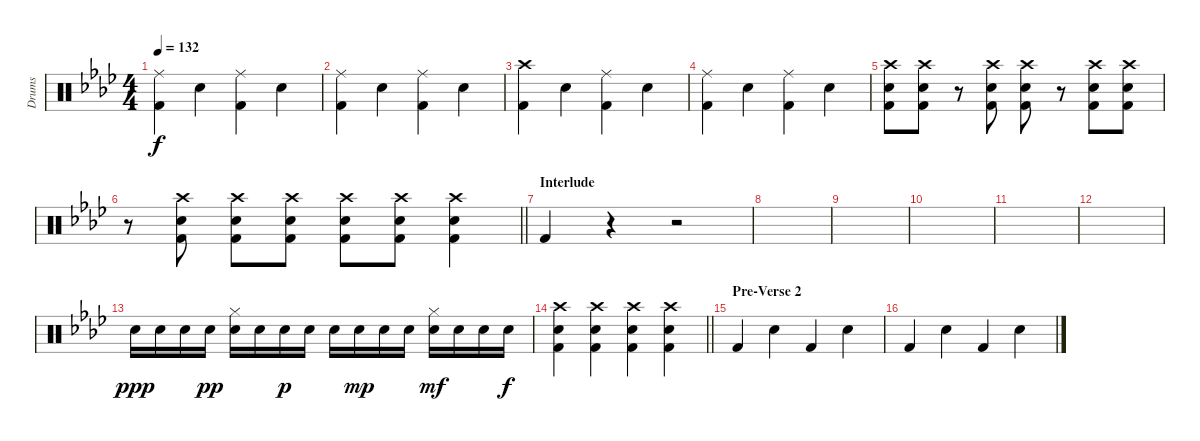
\track ("Drums" "Drums") {instrument percussion}
\staff {score}
\articulation defaults
\ts (4 4)
\tempo 132
\clef neutral
\ks ab
("Ride (middle)" "Kick (hit) 2").4{dy f} "Electric Snare (hit)".4 ("Ride (middle)" "Kick (hit) 2").4 "Electric Snare (hit)".4 |
("Ride (middle)" "Kick (hit) 2").4 "Electric Snare (hit)".4 ("Ride (middle)" "Kick (hit) 2").4 "Electric Snare (hit)".4 |
("Crash high (hit)" "Kick (hit) 2").4 "Electric Snare (hit)".4 ("Ride (middle)" "Kick (hit) 2").4 "Electric Snare (hit)".4 |
("Ride (middle)" "Kick (hit) 2").4 "Electric Snare (hit)".4 ("Ride (middle)" "Kick (hit) 2").4 "Electric Snare (hit)".4 |
("Crash high (hit)" "Electric Snare (hit)" "Kick (hit) 2").8 ("Crash high (hit)" "Electric Snare (hit)" "Kick (hit) 2").8 r.8 ("Crash high (hit)" "Electric Snare (hit)" "Kick (hit) 2").8 ("Crash high (hit)" "Electric Snare (hit)" "Kick (hit) 2").8 r.8 ("Crash high (hit)" "Electric Snare (hit)" "Kick (hit) 2").8 ("Crash high (hit)" "Electric Snare (hit)" "Kick (hit) 2").8 |
\barLineRight lightlight
r.8 ("Crash high (hit)" "Electric Snare (hit)" "Kick (hit) 2").8 ("Crash high (hit)" "Electric Snare (hit)" "Kick (hit) 2").8 ("Crash high (hit)" "Electric Snare (hit)" "Kick (hit) 2").8 ("Crash high (hit)" "Electric Snare (hit)" "Kick (hit) 2").8 ("Crash high (hit)" "Electric Snare (hit)" "Kick (hit) 2").8 ("Crash high (hit)" "Electric Snare (hit)" "Kick (hit) 2").4 |
\section ("" "Interlude")
"Kick (hit) 2".4 r.4 r.2 |
|
|
|
|
|
"Electric Snare (hit)".16{dy ppp} "Electric Snare (hit)".16 "Electric Snare (hit)".16 "Electric Snare (hit)".16{dy pp} ("Hi-Hat (closed)" "Electric Snare (hit)").16 "Electric Snare (hit)".16 "Electric Snare (hit)".16{dy p} "Electric Snare (hit)".16 "Electric Snare (hit)".16 "Electric Snare (hit)".16{dy mp} "Electric Snare (hit)".16 "Electric Snare (hit)".16 ("Hi-Hat (closed)" "Electric Snare (hit)").16{dy mf} "Electric Snare (hit)".16 "Electric Snare (hit)".16 "Electric Snare (hit)".16{dy f} |
\barLineRight lightlight
("Crash high (hit)" "Electric Snare (hit)" "Kick (hit) 2").4 ("Crash high (hit)" "Electric Snare (hit)" "Kick (hit) 2").4 ("Crash high (hit)" "Electric Snare (hit)" "Kick (hit) 2").4 ("Crash high (hit)" "Electric Snare (hit)" "Kick (hit) 2").4 |
\section ("" "Pre-Verse 2")
"Kick (hit) 2".4 "Snare (hit) 2".4 "Kick (hit) 2".4 "Snare (hit) 2".4 |
"Kick (hit) 2".4 "Snare (hit) 2".4 "Kick (hit) 2".4 "Snare (hit) 2".4
